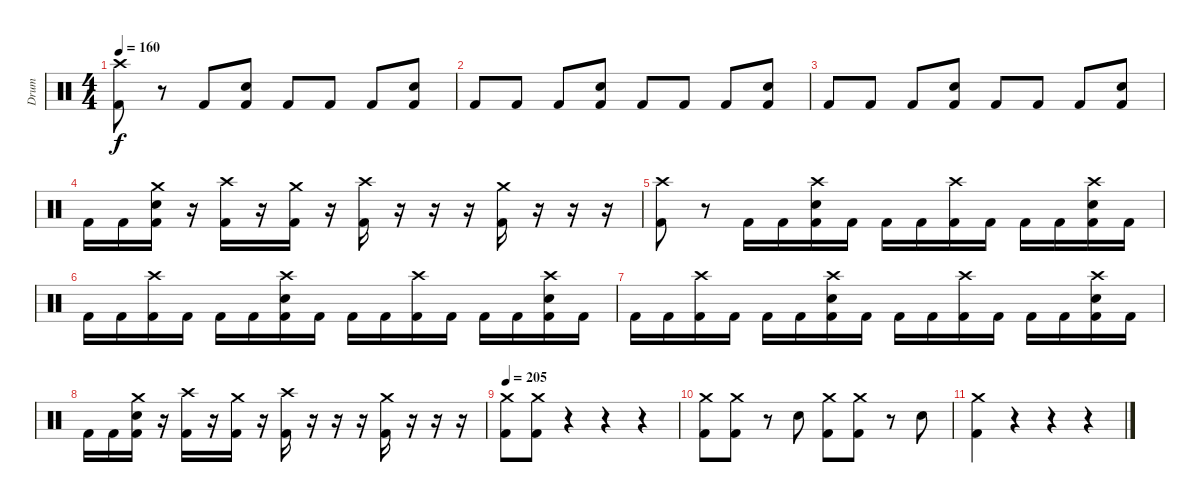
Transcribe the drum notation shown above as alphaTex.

\track ("Drum" "Drum") {instrument percussion}
\staff {score}
\articulation defaults
\ts (4 4)
\tempo 160
\clef neutral
\ks c
("Crash high (hit)" "Kick (hit) 2").8{dy f} r.8 "Kick (hit) 2".8 ("Electric Snare (hit)" "Kick (hit) 2").8 "Kick (hit) 2".8 "Kick (hit) 2".8 "Kick (hit) 2".8 ("Electric Snare (hit)" "Kick (hit) 2").8 |
"Kick (hit) 2".8 "Kick (hit) 2".8 "Kick (hit) 2".8 ("Electric Snare (hit)" "Kick (hit) 2").8 "Kick (hit) 2".8 "Kick (hit) 2".8 "Kick (hit) 2".8 ("Electric Snare (hit)" "Kick (hit) 2").8 |
"Kick (hit) 2".8 "Kick (hit) 2".8 "Kick (hit) 2".8 ("Electric Snare (hit)" "Kick (hit) 2").8 "Kick (hit) 2".8 "Kick (hit) 2".8 "Kick (hit) 2".8 ("Electric Snare (hit)" "Kick (hit) 2").8 |
"Kick (hit) 2".16 "Kick (hit) 2".16 ("Crash medium (hit)" "Electric Snare (hit)" "Kick (hit) 2").16 r.16 ("Crash high (hit)" "Kick (hit) 2").16 r.16 ("Crash medium (hit)" "Kick (hit) 2").16 r.16 ("Crash high (hit)" "Kick (hit) 2").16 r.16 r.16 r.16 ("Crash medium (hit)" "Kick (hit) 2").16 r.16 r.16 r.16 |
("Crash high (hit)" "Kick (hit) 2").8 r.8 "Kick (hit) 2".16 "Kick (hit) 2".16 ("Crash high (hit)" "Electric Snare (hit)" "Kick (hit) 2").16 "Kick (hit) 2".16 "Kick (hit) 2".16 "Kick (hit) 2".16 ("Crash high (hit)" "Kick (hit) 2").16 "Kick (hit) 2".16 "Kick (hit) 2".16 "Kick (hit) 2".16 ("Crash high (hit)" "Electric Snare (hit)" "Kick (hit) 2").16 "Kick (hit) 2".16 |
"Kick (hit) 2".16 "Kick (hit) 2".16 ("Crash high (hit)" "Kick (hit) 2").16 "Kick (hit) 2".16 "Kick (hit) 2".16 "Kick (hit) 2".16 ("Crash high (hit)" "Electric Snare (hit)" "Kick (hit) 2").16 "Kick (hit) 2".16 "Kick (hit) 2".16 "Kick (hit) 2".16 ("Crash high (hit)" "Kick (hit) 2").16 "Kick (hit) 2".16 "Kick (hit) 2".16 "Kick (hit) 2".16 ("Crash high (hit)" "Electric Snare (hit)" "Kick (hit) 2").16 "Kick (hit) 2".16 |
"Kick (hit) 2".16 "Kick (hit) 2".16 ("Crash high (hit)" "Kick (hit) 2").16 "Kick (hit) 2".16 "Kick (hit) 2".16 "Kick (hit) 2".16 ("Crash high (hit)" "Electric Snare (hit)" "Kick (hit) 2").16 "Kick (hit) 2".16 "Kick (hit) 2".16 "Kick (hit) 2".16 ("Crash high (hit)" "Kick (hit) 2").16 "Kick (hit) 2".16 "Kick (hit) 2".16 "Kick (hit) 2".16 ("Crash high (hit)" "Electric Snare (hit)" "Kick (hit) 2").16 "Kick (hit) 2".16 |
"Kick (hit) 2".16 "Kick (hit) 2".16 ("Crash medium (hit)" "Electric Snare (hit)" "Kick (hit) 2").16 r.16 ("Crash high (hit)" "Kick (hit) 2").16 r.16 ("Crash medium (hit)" "Kick (hit) 2").16 r.16 ("Crash high (hit)" "Kick (hit) 2").16 r.16 r.16 r.16 ("Crash medium (hit)" "Kick (hit) 2").16 r.16 r.16 r.16 |
\tempo 205
("Crash medium (hit)" "Kick (hit) 2").8 ("Crash medium (hit)" "Kick (hit) 2").8 r.4 r.4 r.4 |
("Crash medium (hit)" "Kick (hit) 2").8 ("Crash medium (hit)" "Kick (hit) 2").8 r.8 "Electric Snare (hit)".8 ("Crash medium (hit)" "Kick (hit) 2").8 ("Crash medium (hit)" "Kick (hit) 2").8 r.8 "Electric Snare (hit)".8 |
("Crash medium (hit)" "Kick (hit) 2").4 r.4 r.4 r.4
